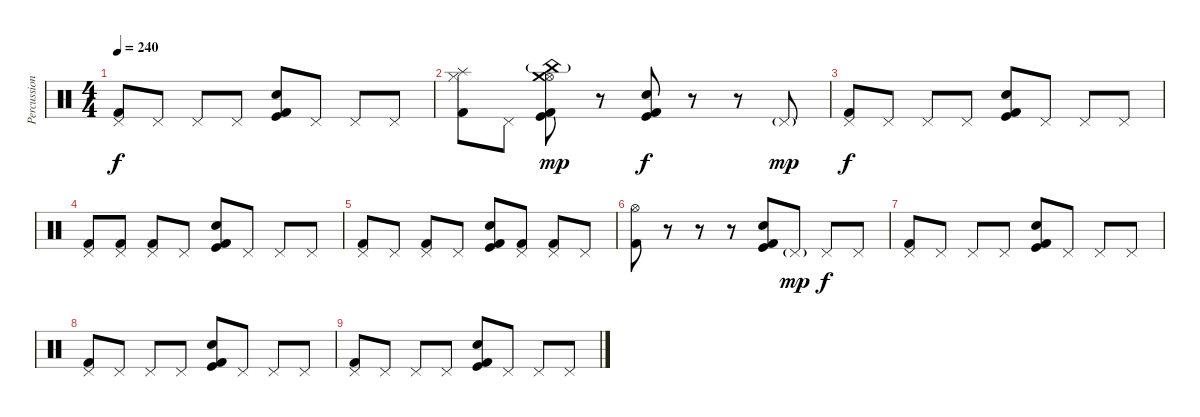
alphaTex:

\track ("Percussion" "Percussion") {instrument percussion}
\staff {score}
\articulation defaults
\ts (4 4)
\tempo 240
\clef neutral
\ks c
("Pedal Hi-Hat (hit)" "Kick (hit) 2").8{dy f} "Pedal Hi-Hat (hit)".8 "Pedal Hi-Hat (hit)".8 "Pedal Hi-Hat (hit)".8 ("Kick (hit)" "Snare (hit) 2" "Kick (hit) 2").8 "Pedal Hi-Hat (hit)".8 "Pedal Hi-Hat (hit)".8 "Pedal Hi-Hat (hit)".8 |
("Hi-Hat (closed)" "Splash (hit)" "Kick (hit) 2").8 "Pedal Hi-Hat (hit)".8 ("Hi-Hat (open)" "Crash medium (hit)" "China (hit)"{g} "Kick (hit)" "Kick (hit) 2").8{dy mp} r.8 ("Kick (hit)" "Snare (hit) 2" "Kick (hit) 2").8{dy f} r.8 r.8 "Pedal Hi-Hat (hit)"{g}.8{dy mp} |
("Pedal Hi-Hat (hit)" "Kick (hit) 2").8{dy f} "Pedal Hi-Hat (hit)".8 "Pedal Hi-Hat (hit)".8 "Pedal Hi-Hat (hit)".8 ("Kick (hit)" "Snare (hit) 2" "Kick (hit) 2").8 "Pedal Hi-Hat (hit)".8 "Pedal Hi-Hat (hit)".8 "Pedal Hi-Hat (hit)".8 |
("Pedal Hi-Hat (hit)" "Kick (hit) 2").8 ("Pedal Hi-Hat (hit)" "Kick (hit) 2").8 ("Pedal Hi-Hat (hit)" "Kick (hit) 2").8 "Pedal Hi-Hat (hit)".8 ("Kick (hit)" "Snare (hit) 2" "Kick (hit) 2").8 "Pedal Hi-Hat (hit)".8 "Pedal Hi-Hat (hit)".8 "Pedal Hi-Hat (hit)".8 |
("Pedal Hi-Hat (hit)" "Kick (hit) 2").8 "Pedal Hi-Hat (hit)".8 ("Pedal Hi-Hat (hit)" "Kick (hit) 2").8 "Pedal Hi-Hat (hit)".8 ("Kick (hit)" "Snare (hit) 2" "Kick (hit) 2").8 ("Pedal Hi-Hat (hit)" "Kick (hit) 2").8 ("Pedal Hi-Hat (hit)" "Kick (hit) 2").8 "Pedal Hi-Hat (hit)".8 |
("Hi-Hat (open)" "Kick (hit) 2").8 r.8 r.8 r.8 ("Kick (hit)" "Snare (hit) 2" "Kick (hit) 2").8 "Pedal Hi-Hat (hit)"{g}.8{dy mp} "Pedal Hi-Hat (hit)".8{dy f} "Pedal Hi-Hat (hit)".8 |
("Pedal Hi-Hat (hit)" "Kick (hit) 2").8 "Pedal Hi-Hat (hit)".8 "Pedal Hi-Hat (hit)".8 "Pedal Hi-Hat (hit)".8 ("Kick (hit)" "Snare (hit) 2" "Kick (hit) 2").8 "Pedal Hi-Hat (hit)".8 "Pedal Hi-Hat (hit)".8 "Pedal Hi-Hat (hit)".8 |
("Pedal Hi-Hat (hit)" "Kick (hit) 2").8 "Pedal Hi-Hat (hit)".8 "Pedal Hi-Hat (hit)".8 "Pedal Hi-Hat (hit)".8 ("Kick (hit)" "Snare (hit) 2" "Kick (hit) 2").8 "Pedal Hi-Hat (hit)".8 "Pedal Hi-Hat (hit)".8 "Pedal Hi-Hat (hit)".8 |
("Pedal Hi-Hat (hit)" "Kick (hit) 2").8 "Pedal Hi-Hat (hit)".8 "Pedal Hi-Hat (hit)".8 "Pedal Hi-Hat (hit)".8 ("Kick (hit)" "Snare (hit) 2" "Kick (hit) 2").8 "Pedal Hi-Hat (hit)".8 "Pedal Hi-Hat (hit)".8 "Pedal Hi-Hat (hit)".8
